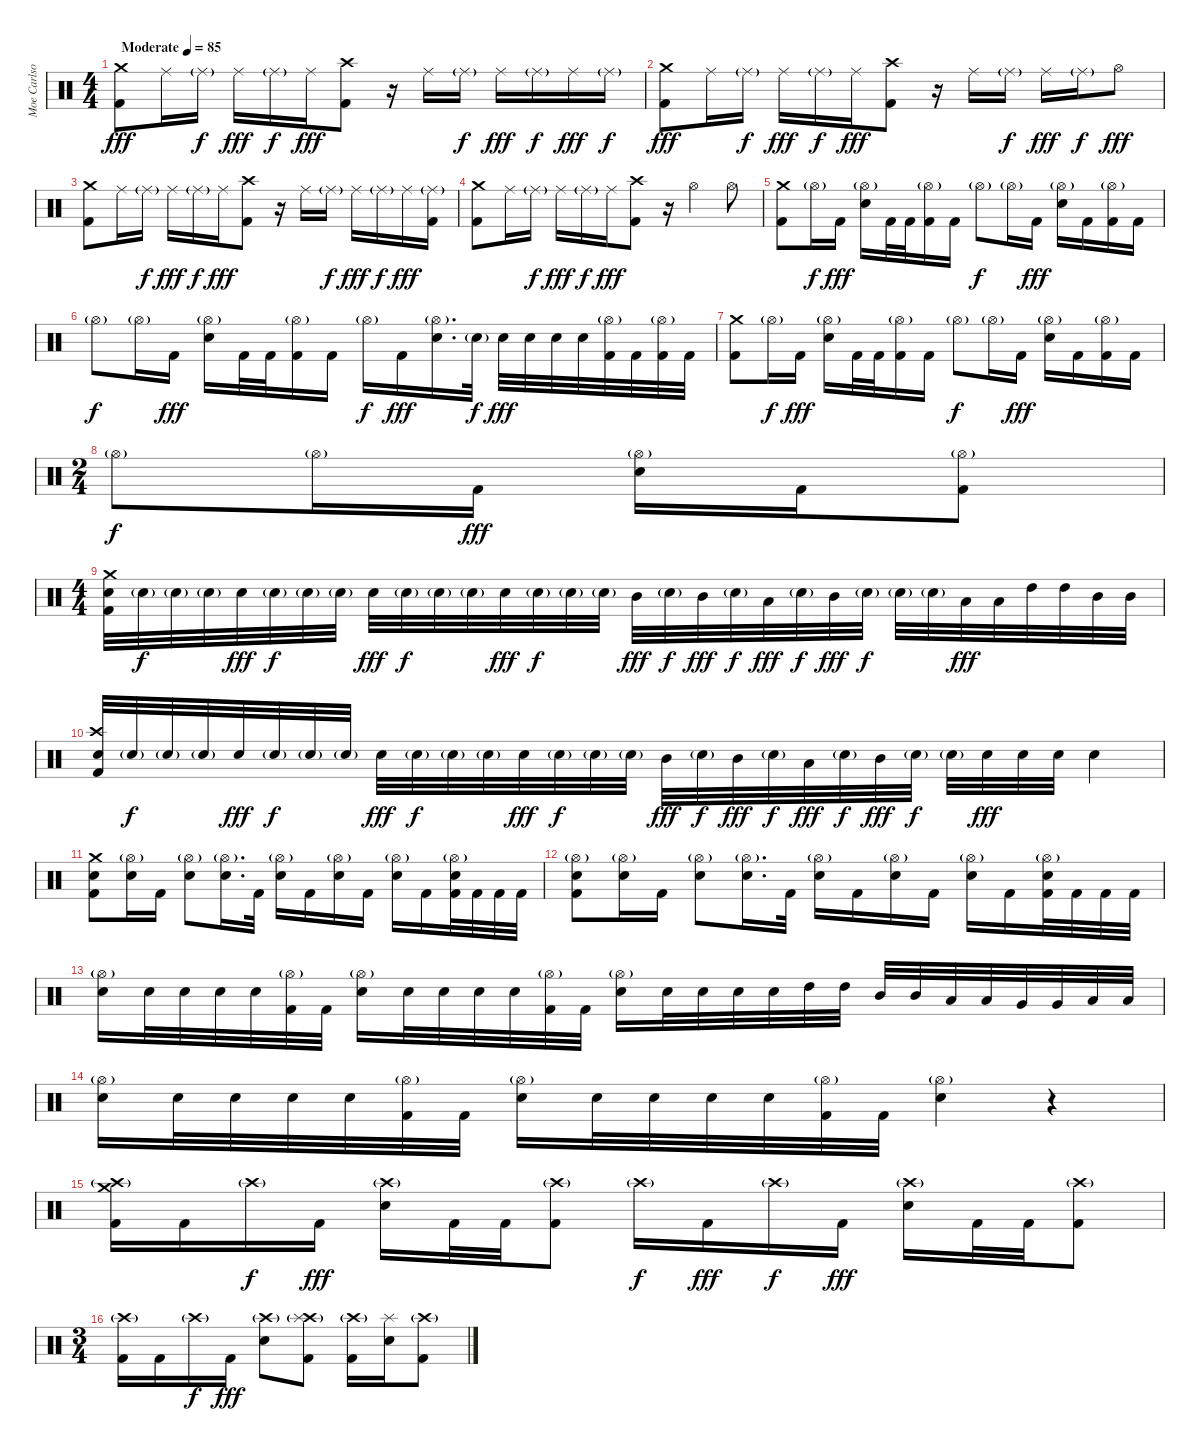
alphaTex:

\track ("Moe Carlson" "Moe Carlso") {instrument percussion}
\staff {score}
\articulation defaults
\ts (4 4)
\tempo (85 "Moderate")
\clef neutral
\ks c
("Crash medium (hit)" "Kick (hit) 2").8{dy fff} "Ride (middle)".16 "Ride (middle)"{g}.16{dy f} "Ride (middle)".16{dy fff} "Ride (middle)"{g}.16{dy f} "Ride (middle)".16{dy fff} ("Crash high (hit)" "Kick (hit) 2").8 r.16 "Ride (middle)".16 "Ride (middle)"{g}.16{dy f} "Ride (middle)".16{dy fff} "Ride (middle)"{g}.16{dy f} "Ride (middle)".16{dy fff} "Ride (middle)"{g}.16{dy f} |
("Crash medium (hit)" "Kick (hit) 2").8{dy fff} "Ride (middle)".16 "Ride (middle)"{g}.16{dy f} "Ride (middle)".16{dy fff} "Ride (middle)"{g}.16{dy f} "Ride (middle)".16{dy fff} ("Crash high (hit)" "Kick (hit) 2").8 r.16 "Ride (middle)".16 "Ride (middle)"{g}.16{dy f} "Ride (middle)".16{dy fff} "Ride (middle)"{g}.16{dy f} "Hi-Hat (open)".8{dy fff} |
("Crash medium (hit)" "Kick (hit) 2").8 "Ride (middle)".16 "Ride (middle)"{g}.16{dy f} "Ride (middle)".16{dy fff} "Ride (middle)"{g}.16{dy f} "Ride (middle)".16{dy fff} ("Crash high (hit)" "Kick (hit) 2").8 r.16 "Ride (middle)".16 "Ride (middle)"{g}.16{dy f} "Ride (middle)".16{dy fff} "Ride (middle)"{g}.16{dy f} "Ride (middle)".16{dy fff} ("Ride (middle)"{g} "Kick (hit) 2").16 |
("Crash medium (hit)" "Kick (hit) 2").8 "Ride (middle)".16 "Ride (middle)"{g}.16{dy f} "Ride (middle)".16{dy fff} "Ride (middle)"{g}.16{dy f} "Ride (middle)".16{dy fff} ("Crash high (hit)" "Kick (hit) 2").8 r.16 "Hi-Hat (open)".4 "Hi-Hat (open)".8 |
("Crash medium (hit)" "Kick (hit) 2").8 "Hi-Hat (open)"{g}.16{dy f} "Kick (hit) 2".16{dy fff} ("Hi-Hat (open)"{g} "Electric Snare (hit)").16 "Kick (hit) 2".32 "Kick (hit) 2".32 ("Hi-Hat (open)"{g} "Kick (hit) 2").16 "Kick (hit) 2".16 "Hi-Hat (open)"{g}.8{dy f} "Hi-Hat (open)"{g}.16 "Kick (hit) 2".16{dy fff} ("Hi-Hat (open)"{g} "Electric Snare (hit)").16 "Kick (hit) 2".16 ("Hi-Hat (open)"{g} "Kick (hit) 2").16 "Kick (hit) 2".16 |
"Hi-Hat (open)"{g}.8{dy f} "Hi-Hat (open)"{g}.16 "Kick (hit) 2".16{dy fff} ("Hi-Hat (open)"{g} "Electric Snare (hit)").16 "Kick (hit) 2".32 "Kick (hit) 2".32 ("Hi-Hat (open)"{g} "Kick (hit) 2").16 "Kick (hit) 2".16 "Hi-Hat (open)"{g}.16{dy f} "Kick (hit) 2".16{dy fff} ("Hi-Hat (open)"{g} "Electric Snare (hit)").16{d} "Electric Snare (hit)"{g}.32{dy f} "Electric Snare (hit)".32{dy fff} "Electric Snare (hit)".32 "Electric Snare (hit)".32 "Electric Snare (hit)".32 ("Hi-Hat (open)"{g} "Kick (hit) 2").32 "Kick (hit) 2".32 ("Hi-Hat (open)"{g} "Kick (hit) 2").32 "Kick (hit) 2".32 |
("Crash medium (hit)" "Kick (hit) 2").8 "Hi-Hat (open)"{g}.16{dy f} "Kick (hit) 2".16{dy fff} ("Hi-Hat (open)"{g} "Electric Snare (hit)").16 "Kick (hit) 2".32 "Kick (hit) 2".32 ("Hi-Hat (open)"{g} "Kick (hit) 2").16 "Kick (hit) 2".16 "Hi-Hat (open)"{g}.8{dy f} "Hi-Hat (open)"{g}.16 "Kick (hit) 2".16{dy fff} ("Hi-Hat (open)"{g} "Electric Snare (hit)").16 "Kick (hit) 2".16 ("Hi-Hat (open)"{g} "Kick (hit) 2").16 "Kick (hit) 2".16 |
\ts (2 4)
"Hi-Hat (open)"{g}.8{dy f} "Hi-Hat (open)"{g}.16 "Kick (hit) 2".16{dy fff} ("Hi-Hat (open)"{g} "Electric Snare (hit)").16 "Kick (hit) 2".16 ("Hi-Hat (open)"{g} "Kick (hit) 2").8 |
\ts (4 4)
("Crash medium (hit)" "Electric Snare (hit)" "Kick (hit) 2").32 "Electric Snare (hit)"{g}.32{dy f} "Electric Snare (hit)"{g}.32 "Electric Snare (hit)"{g}.32 "Electric Snare (hit)".32{dy fff} "Electric Snare (hit)"{g}.32{dy f} "Electric Snare (hit)"{g}.32 "Electric Snare (hit)"{g}.32 "Electric Snare (hit)".32{dy fff} "Electric Snare (hit)"{g}.32{dy f} "Electric Snare (hit)"{g}.32 "Electric Snare (hit)"{g}.32 "Electric Snare (hit)".32{dy fff} "Electric Snare (hit)"{g}.32{dy f} "Electric Snare (hit)"{g}.32 "Electric Snare (hit)"{g}.32 "Mid Tom (hit)".32{dy fff} "Electric Snare (hit)"{g}.32{dy f} "Mid Tom (hit)".32{dy fff} "Electric Snare (hit)"{g}.32{dy f} "Low Tom (hit)".32{dy fff} "Electric Snare (hit)"{g}.32{dy f} "Mid Tom (hit)".32{dy fff} "Electric Snare (hit)"{g}.32{dy f} "Electric Snare (hit)"{g}.32 "Electric Snare (hit)"{g}.32 "Low Tom (hit)".32{dy fff} "Low Tom (hit)".32 "High Tom (hit)".32 "High Tom (hit)".32 "Mid Tom (hit)".32 "Mid Tom (hit)".32 |
("Crash high (hit)" "Electric Snare (hit)" "Kick (hit) 2").32 "Electric Snare (hit)"{g}.32{dy f} "Electric Snare (hit)"{g}.32 "Electric Snare (hit)"{g}.32 "Electric Snare (hit)".32{dy fff} "Electric Snare (hit)"{g}.32{dy f} "Electric Snare (hit)"{g}.32 "Electric Snare (hit)"{g}.32 "Electric Snare (hit)".32{dy fff} "Electric Snare (hit)"{g}.32{dy f} "Electric Snare (hit)"{g}.32 "Electric Snare (hit)"{g}.32 "Electric Snare (hit)".32{dy fff} "Electric Snare (hit)"{g}.32{dy f} "Electric Snare (hit)"{g}.32 "Electric Snare (hit)"{g}.32 "Mid Tom (hit)".32{dy fff} "Electric Snare (hit)"{g}.32{dy f} "Mid Tom (hit)".32{dy fff} "Electric Snare (hit)"{g}.32{dy f} "Low Tom (hit)".32{dy fff} "Electric Snare (hit)"{g}.32{dy f} "Mid Tom (hit)".32{dy fff} "Electric Snare (hit)"{g}.32{dy f} "Electric Snare (hit)"{g}.32 "Electric Snare (hit)".32{dy fff} "Electric Snare (hit)".32 "Electric Snare (hit)".32 "Electric Snare (hit)".4 |
("Crash medium (hit)" "Electric Snare (hit)" "Kick (hit) 2").8 ("Hi-Hat (open)"{g} "Electric Snare (hit)").16 "Kick (hit) 2".16 ("Hi-Hat (open)"{g} "Electric Snare (hit)").8 ("Hi-Hat (open)"{g} "Electric Snare (hit)").16{d} "Kick (hit) 2".32 ("Hi-Hat (open)"{g} "Electric Snare (hit)").16 "Kick (hit) 2".16 ("Hi-Hat (open)"{g} "Electric Snare (hit)").16 "Kick (hit) 2".16 ("Hi-Hat (open)"{g} "Electric Snare (hit)").16 "Kick (hit) 2".16 ("Hi-Hat (open)"{g} "Electric Snare (hit)" "Kick (hit) 2").32 "Kick (hit) 2".32 "Kick (hit) 2".32 "Kick (hit) 2".32 |
("Hi-Hat (open)"{g} "Electric Snare (hit)" "Kick (hit) 2").8 ("Hi-Hat (open)"{g} "Electric Snare (hit)").16 "Kick (hit) 2".16 ("Hi-Hat (open)"{g} "Electric Snare (hit)").8 ("Hi-Hat (open)"{g} "Electric Snare (hit)").16{d} "Kick (hit) 2".32 ("Hi-Hat (open)"{g} "Electric Snare (hit)").16 "Kick (hit) 2".16 ("Hi-Hat (open)"{g} "Electric Snare (hit)").16 "Kick (hit) 2".16 ("Hi-Hat (open)"{g} "Electric Snare (hit)").16 "Kick (hit) 2".16 ("Hi-Hat (open)"{g} "Electric Snare (hit)" "Kick (hit) 2").32 "Kick (hit) 2".32 "Kick (hit) 2".32 "Kick (hit) 2".32 |
("Hi-Hat (open)"{g} "Electric Snare (hit)").16 "Electric Snare (hit)".32 "Electric Snare (hit)".32 "Electric Snare (hit)".32 "Electric Snare (hit)".32 ("Hi-Hat (open)"{g} "Kick (hit) 2").32 "Kick (hit) 2".32 ("Hi-Hat (open)"{g} "Electric Snare (hit)").16 "Electric Snare (hit)".32 "Electric Snare (hit)".32 "Electric Snare (hit)".32 "Electric Snare (hit)".32 ("Hi-Hat (open)"{g} "Kick (hit) 2").32 "Kick (hit) 2".32 ("Hi-Hat (open)"{g} "Electric Snare (hit)").16 "Electric Snare (hit)".32 "Electric Snare (hit)".32 "Electric Snare (hit)".32 "Electric Snare (hit)".32 "High Tom (hit)".32 "High Tom (hit)".32 "Mid Tom (hit)".32 "Mid Tom (hit)".32 "Low Tom (hit)".32 "Low Tom (hit)".32 "Very Low Tom (hit)".32 "Very Low Tom (hit)".32 "Low Floor Tom (hit)".32 "Low Floor Tom (hit)".32 |
("Hi-Hat (open)"{g} "Electric Snare (hit)").16 "Electric Snare (hit)".32 "Electric Snare (hit)".32 "Electric Snare (hit)".32 "Electric Snare (hit)".32 ("Hi-Hat (open)"{g} "Kick (hit) 2").32 "Kick (hit) 2".32 ("Hi-Hat (open)"{g} "Electric Snare (hit)").16 "Electric Snare (hit)".32 "Electric Snare (hit)".32 "Electric Snare (hit)".32 "Electric Snare (hit)".32 ("Hi-Hat (open)"{g} "Kick (hit) 2").32 "Kick (hit) 2".32 ("Hi-Hat (open)"{g} "Electric Snare (hit)").4 r.4 |
("Crash high (hit)"{g} "Crash medium (hit)" "Kick (hit) 2").16 "Kick (hit) 2".16 "Crash high (hit)"{g}.16{dy f} "Kick (hit) 2".16{dy fff} ("Crash high (hit)"{g} "Electric Snare (hit)").16 "Kick (hit) 2".32 "Kick (hit) 2".32 ("Crash high (hit)"{g} "Kick (hit) 2").8 "Crash high (hit)"{g}.16{dy f} "Kick (hit) 2".16{dy fff} "Crash high (hit)"{g}.16{dy f} "Kick (hit) 2".16{dy fff} ("Crash high (hit)"{g} "Electric Snare (hit)").16 "Kick (hit) 2".32 "Kick (hit) 2".32 ("Crash high (hit)"{g} "Kick (hit) 2").8 |
\ts (3 4)
("Crash high (hit)"{g} "Kick (hit) 2").16 "Kick (hit) 2".16 "Crash high (hit)"{g}.16{dy f} "Kick (hit) 2".16{dy fff} ("Crash high (hit)"{g} "Electric Snare (hit)").8 ("Crash high (hit)"{g} "Splash (hit)" "Kick (hit) 2").8 ("Crash high (hit)"{g} "Kick (hit) 2").16 ("Splash (hit)" "Electric Snare (hit)").16 ("Crash high (hit)"{g} "Kick (hit) 2").8
